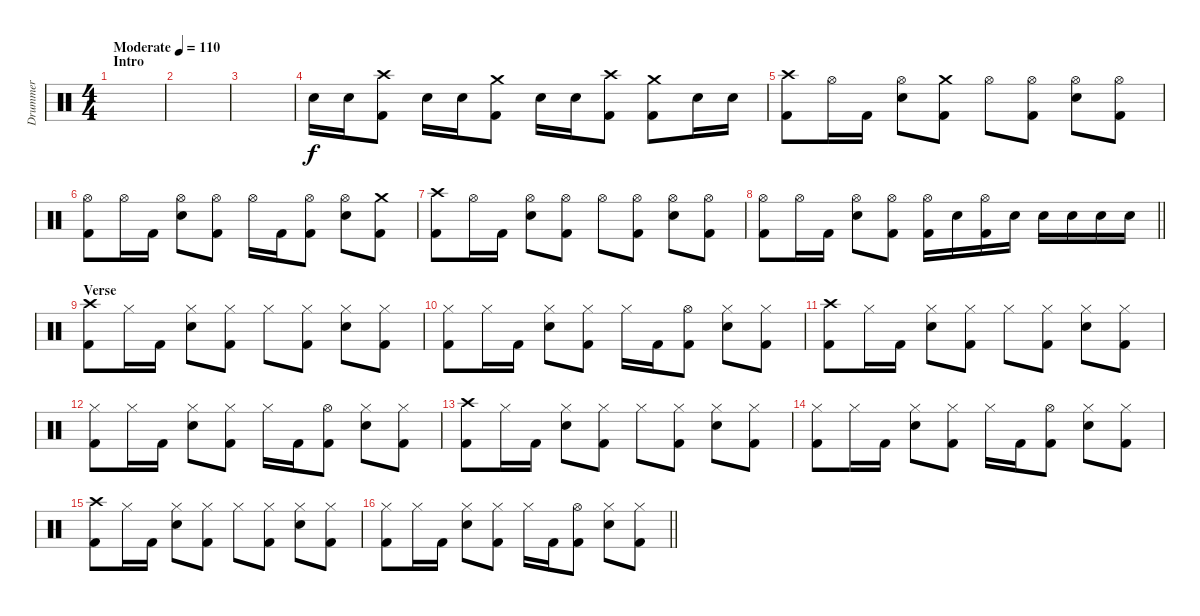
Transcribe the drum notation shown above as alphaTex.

\track ("Drummer" "Drummer") {instrument percussion}
\staff {score}
\articulation defaults
\ts (4 4)
\section ("" "Intro")
\tempo (110 "Moderate")
\clef neutral
\ks c
|
|
|
"Electric Snare (hit)".16 "Electric Snare (hit)".16 ("Crash high (hit)" "Kick (hit) 2").8 "Electric Snare (hit)".16 "Electric Snare (hit)".16 ("Crash medium (hit)" "Kick (hit) 2").8 "Electric Snare (hit)".16 "Electric Snare (hit)".16 ("Crash high (hit)" "Kick (hit) 2").8 ("Crash medium (hit)" "Kick (hit) 2").8 "Electric Snare (hit)".16 "Electric Snare (hit)".16 |
("Crash high (hit)" "Kick (hit) 2").8 "Hi-Hat (open)".16 "Kick (hit) 2".16 ("Hi-Hat (open)" "Electric Snare (hit)").8 ("Crash medium (hit)" "Kick (hit) 2").8 "Hi-Hat (open)".8 ("Hi-Hat (open)" "Kick (hit) 2").8 ("Hi-Hat (open)" "Electric Snare (hit)").8 ("Hi-Hat (open)" "Kick (hit) 2").8 |
("Hi-Hat (open)" "Kick (hit) 2").8 "Hi-Hat (open)".16 "Kick (hit) 2".16 ("Hi-Hat (open)" "Electric Snare (hit)").8 ("Hi-Hat (open)" "Kick (hit) 2").8 "Hi-Hat (open)".16 "Kick (hit) 2".16 ("Hi-Hat (open)" "Kick (hit) 2").8 ("Hi-Hat (open)" "Electric Snare (hit)").8 ("Crash medium (hit)" "Kick (hit) 2").8 |
("Crash high (hit)" "Kick (hit) 2").8 "Hi-Hat (open)".16 "Kick (hit) 2".16 ("Hi-Hat (open)" "Electric Snare (hit)").8 ("Hi-Hat (open)" "Kick (hit) 2").8 "Hi-Hat (open)".8 ("Hi-Hat (open)" "Kick (hit) 2").8 ("Hi-Hat (open)" "Electric Snare (hit)").8 ("Hi-Hat (open)" "Kick (hit) 2").8 |
\barLineRight lightlight
("Hi-Hat (open)" "Kick (hit) 2").8 "Hi-Hat (open)".16 "Kick (hit) 2".16 ("Hi-Hat (open)" "Electric Snare (hit)").8 ("Hi-Hat (open)" "Kick (hit) 2").8 ("Hi-Hat (open)" "Kick (hit) 2").16 "Electric Snare (hit)".16 ("Hi-Hat (open)" "Kick (hit) 2").16 "Electric Snare (hit)".16 "Electric Snare (hit)".16 "Electric Snare (hit)".16 "Electric Snare (hit)".16 "Electric Snare (hit)".16 |
\section ("" "Verse")
("Crash high (hit)" "Kick (hit) 2").8 "Hi-Hat (closed)".16 "Kick (hit) 2".16 ("Hi-Hat (closed)" "Electric Snare (hit)").8 ("Hi-Hat (closed)" "Kick (hit) 2").8 "Hi-Hat (closed)".8 ("Hi-Hat (closed)" "Kick (hit) 2").8 ("Hi-Hat (closed)" "Electric Snare (hit)").8 ("Hi-Hat (closed)" "Kick (hit) 2").8 |
("Hi-Hat (closed)" "Kick (hit) 2").8 "Hi-Hat (closed)".16 "Kick (hit) 2".16 ("Hi-Hat (closed)" "Electric Snare (hit)").8 ("Hi-Hat (closed)" "Kick (hit) 2").8 "Hi-Hat (closed)".16 "Kick (hit) 2".16 ("Hi-Hat (open)" "Kick (hit) 2").8 ("Hi-Hat (closed)" "Electric Snare (hit)").8 ("Hi-Hat (closed)" "Kick (hit) 2").8 |
("Crash high (hit)" "Kick (hit) 2").8 "Hi-Hat (closed)".16 "Kick (hit) 2".16 ("Hi-Hat (closed)" "Electric Snare (hit)").8 ("Hi-Hat (closed)" "Kick (hit) 2").8 "Hi-Hat (closed)".8 ("Hi-Hat (closed)" "Kick (hit) 2").8 ("Hi-Hat (closed)" "Electric Snare (hit)").8 ("Hi-Hat (closed)" "Kick (hit) 2").8 |
("Hi-Hat (closed)" "Kick (hit) 2").8 "Hi-Hat (closed)".16 "Kick (hit) 2".16 ("Hi-Hat (closed)" "Electric Snare (hit)").8 ("Hi-Hat (closed)" "Kick (hit) 2").8 "Hi-Hat (closed)".16 "Kick (hit) 2".16 ("Hi-Hat (open)" "Kick (hit) 2").8 ("Hi-Hat (closed)" "Electric Snare (hit)").8 ("Hi-Hat (closed)" "Kick (hit) 2").8 |
("Crash high (hit)" "Kick (hit) 2").8 "Hi-Hat (closed)".16 "Kick (hit) 2".16 ("Hi-Hat (closed)" "Electric Snare (hit)").8 ("Hi-Hat (closed)" "Kick (hit) 2").8 "Hi-Hat (closed)".8 ("Hi-Hat (closed)" "Kick (hit) 2").8 ("Hi-Hat (closed)" "Electric Snare (hit)").8 ("Hi-Hat (closed)" "Kick (hit) 2").8 |
("Hi-Hat (closed)" "Kick (hit) 2").8 "Hi-Hat (closed)".16 "Kick (hit) 2".16 ("Hi-Hat (closed)" "Electric Snare (hit)").8 ("Hi-Hat (closed)" "Kick (hit) 2").8 "Hi-Hat (closed)".16 "Kick (hit) 2".16 ("Hi-Hat (open)" "Kick (hit) 2").8 ("Hi-Hat (closed)" "Electric Snare (hit)").8 ("Hi-Hat (closed)" "Kick (hit) 2").8 |
("Crash high (hit)" "Kick (hit) 2").8 "Hi-Hat (closed)".16 "Kick (hit) 2".16 ("Hi-Hat (closed)" "Electric Snare (hit)").8 ("Hi-Hat (closed)" "Kick (hit) 2").8 "Hi-Hat (closed)".8 ("Hi-Hat (closed)" "Kick (hit) 2").8 ("Hi-Hat (closed)" "Electric Snare (hit)").8 ("Hi-Hat (closed)" "Kick (hit) 2").8 |
\barLineRight lightlight
("Hi-Hat (closed)" "Kick (hit) 2").8 "Hi-Hat (closed)".16 "Kick (hit) 2".16 ("Hi-Hat (closed)" "Electric Snare (hit)").8 ("Hi-Hat (closed)" "Kick (hit) 2").8 "Hi-Hat (closed)".16 "Kick (hit) 2".16 ("Hi-Hat (open)" "Kick (hit) 2").8 ("Hi-Hat (closed)" "Electric Snare (hit)").8 ("Hi-Hat (closed)" "Kick (hit) 2").8
